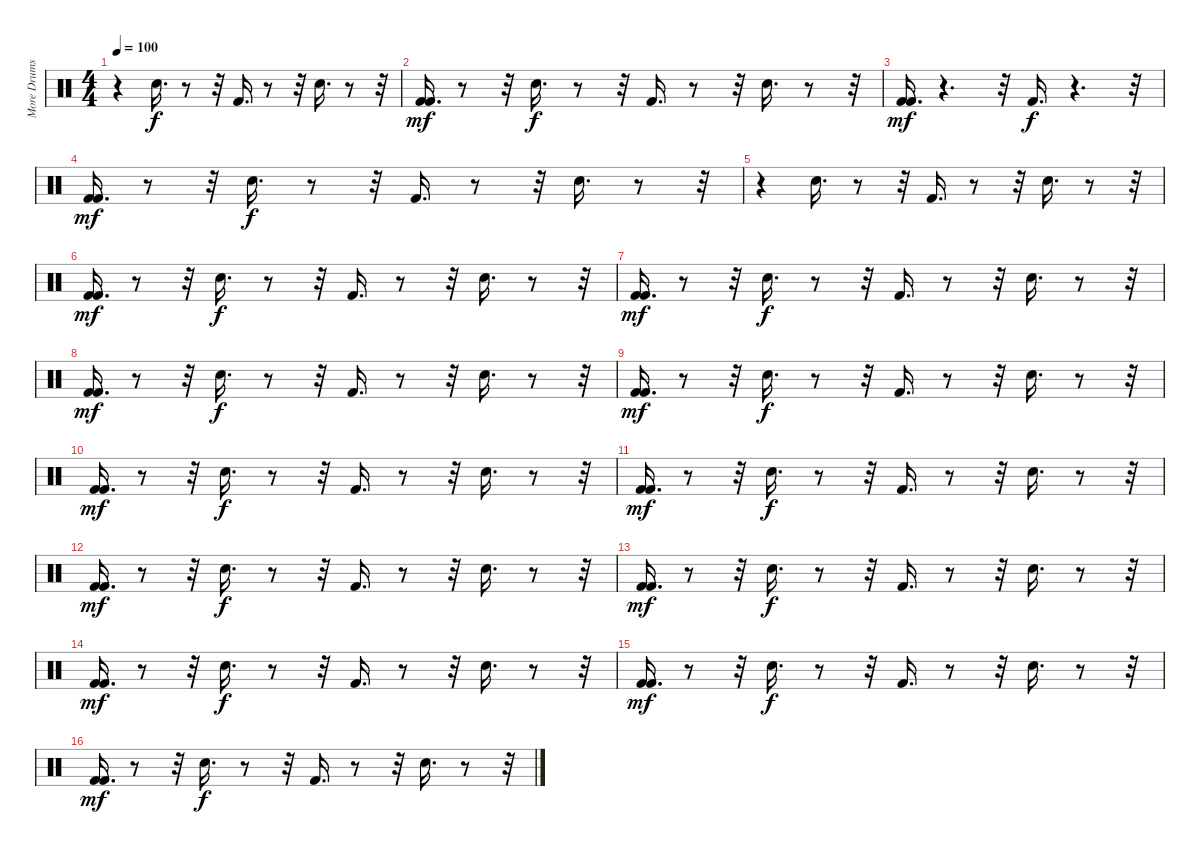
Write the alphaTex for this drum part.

\track ("More Drums" "More Drums") {instrument percussion}
\staff {score}
\articulation defaults
\ts (4 4)
\tempo 100
\clef neutral
\ks c
r.4{dy f} "Electric Snare (hit)".16{d} r.8 r.32 "Kick (hit) 2".16{d} r.8 r.32 "Electric Snare (hit)".16{d} r.8 r.32 |
("Kick (hit) 2" "Kick (hit) 2").16{d dy mf} r.8 r.32 "Electric Snare (hit)".16{d dy f} r.8 r.32 "Kick (hit) 2".16{d} r.8 r.32 "Electric Snare (hit)".16{d} r.8 r.32 |
("Kick (hit) 2" "Kick (hit) 2").16{d dy mf} r.4{d} r.32 "Kick (hit) 2".16{d dy f} r.4{d} r.32 |
("Kick (hit) 2" "Kick (hit) 2").16{d dy mf} r.8 r.32 "Electric Snare (hit)".16{d dy f} r.8 r.32 "Kick (hit) 2".16{d} r.8 r.32 "Electric Snare (hit)".16{d} r.8 r.32 |
r.4 "Electric Snare (hit)".16{d} r.8 r.32 "Kick (hit) 2".16{d} r.8 r.32 "Electric Snare (hit)".16{d} r.8 r.32 |
("Kick (hit) 2" "Kick (hit) 2").16{d dy mf} r.8 r.32 "Electric Snare (hit)".16{d dy f} r.8 r.32 "Kick (hit) 2".16{d} r.8 r.32 "Electric Snare (hit)".16{d} r.8 r.32 |
("Kick (hit) 2" "Kick (hit) 2").16{d dy mf} r.8 r.32 "Electric Snare (hit)".16{d dy f} r.8 r.32 "Kick (hit) 2".16{d} r.8 r.32 "Electric Snare (hit)".16{d} r.8 r.32 |
("Kick (hit) 2" "Kick (hit) 2").16{d dy mf} r.8 r.32 "Electric Snare (hit)".16{d dy f} r.8 r.32 "Kick (hit) 2".16{d} r.8 r.32 "Electric Snare (hit)".16{d} r.8 r.32 |
("Kick (hit) 2" "Kick (hit) 2").16{d dy mf} r.8 r.32 "Electric Snare (hit)".16{d dy f} r.8 r.32 "Kick (hit) 2".16{d} r.8 r.32 "Electric Snare (hit)".16{d} r.8 r.32 |
("Kick (hit) 2" "Kick (hit) 2").16{d dy mf} r.8 r.32 "Electric Snare (hit)".16{d dy f} r.8 r.32 "Kick (hit) 2".16{d} r.8 r.32 "Electric Snare (hit)".16{d} r.8 r.32 |
("Kick (hit) 2" "Kick (hit) 2").16{d dy mf} r.8 r.32 "Electric Snare (hit)".16{d dy f} r.8 r.32 "Kick (hit) 2".16{d} r.8 r.32 "Electric Snare (hit)".16{d} r.8 r.32 |
("Kick (hit) 2" "Kick (hit) 2").16{d dy mf} r.8 r.32 "Electric Snare (hit)".16{d dy f volume 12} r.8 r.32 "Kick (hit) 2".16{d volume 12} r.8 r.32 "Electric Snare (hit)".16{d volume 11} r.8 r.32 |
("Kick (hit) 2" "Kick (hit) 2").16{d dy mf volume 11} r.8 r.32 "Electric Snare (hit)".16{d dy f volume 10} r.8 r.32 "Kick (hit) 2".16{d volume 10} r.8 r.32 "Electric Snare (hit)".16{d volume 9} r.8 r.32 |
("Kick (hit) 2" "Kick (hit) 2").16{d dy mf volume 8} r.8 r.32 "Electric Snare (hit)".16{d dy f volume 8} r.8 r.32 "Kick (hit) 2".16{d volume 8} r.8 r.32 "Electric Snare (hit)".16{d volume 7} r.8 r.32 |
("Kick (hit) 2" "Kick (hit) 2").16{d dy mf volume 6} r.8 r.32 "Electric Snare (hit)".16{d dy f volume 6} r.8 r.32 "Kick (hit) 2".16{d volume 6} r.8 r.32 "Electric Snare (hit)".16{d volume 5} r.8 r.32 |
("Kick (hit) 2" "Kick (hit) 2").16{d dy mf volume 5} r.8 r.32 "Electric Snare (hit)".16{d dy f volume 4} r.8 r.32 "Kick (hit) 2".16{d volume 4} r.8 r.32 "Electric Snare (hit)".16{d volume 3} r.8 r.32
